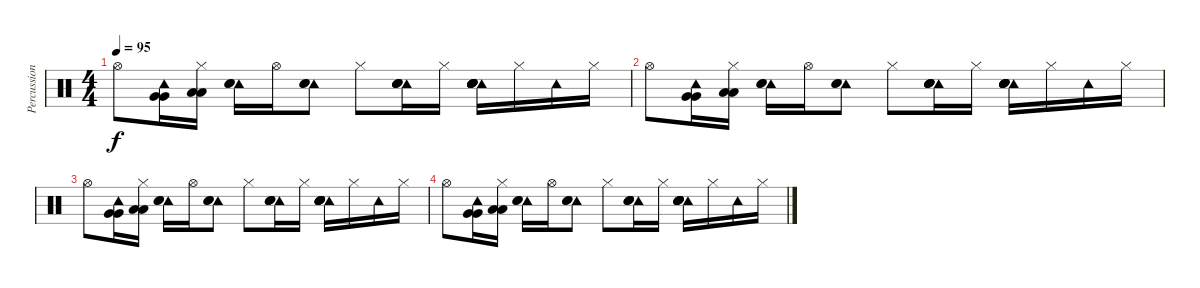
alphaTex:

\track ("Percussion" "Percussion") {instrument percussion}
\staff {score}
\articulation defaults
\ts (4 4)
\tempo 95
\clef neutral
\ks c "Hi-Hat (open)".8{dy f}
("Tambourine (hit)" "Very Low Tom (hit)" "Very Low Tom (hit)").16 ("Hi-Hat (closed)" "Low Floor Tom (hit)" "Low Floor Tom (hit)").16 ("Tambourine (hit)" "Electric Snare (hit)" "Electric Snare (hit)").16 "Hi-Hat (open)".16 ("Tambourine (hit)" "Snare (hit) 2" "Snare (hit) 2").8 "Hi-Hat (closed)".8 ("Tambourine (hit)" "Hand Clap (hit)" "Hand Clap (hit)" "Hand Clap (hit)").16 "Hi-Hat (closed)".16 ("Tambourine (hit)" "Snare (hit) 2" "Snare (hit) 2" "Hand Clap (hit)" "Hand Clap (hit)" "Hand Clap (hit)").16 "Hi-Hat (closed)".16 "Tambourine (hit)".16 "Hi-Hat (closed)".16 |
"Hi-Hat (open)".8{volume 0} ("Tambourine (hit)" "Very Low Tom (hit)" "Very Low Tom (hit)").16 ("Hi-Hat (closed)" "Low Floor Tom (hit)" "Low Floor Tom (hit)").16 ("Tambourine (hit)" "Electric Snare (hit)" "Electric Snare (hit)").16 "Hi-Hat (open)".16 ("Tambourine (hit)" "Snare (hit) 2" "Snare (hit) 2").8 "Hi-Hat (closed)".8 ("Tambourine (hit)" "Hand Clap (hit)" "Hand Clap (hit)" "Hand Clap (hit)").16 "Hi-Hat (closed)".16 ("Tambourine (hit)" "Snare (hit) 2" "Snare (hit) 2" "Hand Clap (hit)" "Hand Clap (hit)" "Hand Clap (hit)").16 "Hi-Hat (closed)".16 "Tambourine (hit)".16 "Hi-Hat (closed)".16 |
"Hi-Hat (open)".8 ("Tambourine (hit)" "Very Low Tom (hit)" "Very Low Tom (hit)").16 ("Hi-Hat (closed)" "Low Floor Tom (hit)" "Low Floor Tom (hit)").16 ("Tambourine (hit)" "Electric Snare (hit)" "Electric Snare (hit)").16 "Hi-Hat (open)".16 ("Tambourine (hit)" "Snare (hit) 2" "Snare (hit) 2").8 "Hi-Hat (closed)".8 ("Tambourine (hit)" "Hand Clap (hit)" "Hand Clap (hit)" "Hand Clap (hit)").16 "Hi-Hat (closed)".16 ("Tambourine (hit)" "Snare (hit) 2" "Snare (hit) 2" "Hand Clap (hit)" "Hand Clap (hit)" "Hand Clap (hit)").16 "Hi-Hat (closed)".16 "Tambourine (hit)".16 "Hi-Hat (closed)".16 |
"Hi-Hat (open)".8 ("Tambourine (hit)" "Very Low Tom (hit)" "Very Low Tom (hit)").16 ("Hi-Hat (closed)" "Low Floor Tom (hit)" "Low Floor Tom (hit)").16 ("Tambourine (hit)" "Electric Snare (hit)" "Electric Snare (hit)").16 "Hi-Hat (open)".16 ("Tambourine (hit)" "Snare (hit) 2" "Snare (hit) 2").8 "Hi-Hat (closed)".8 ("Tambourine (hit)" "Hand Clap (hit)" "Hand Clap (hit)" "Hand Clap (hit)").16 "Hi-Hat (closed)".16 ("Tambourine (hit)" "Snare (hit) 2" "Snare (hit) 2" "Hand Clap (hit)" "Hand Clap (hit)" "Hand Clap (hit)").16 "Hi-Hat (closed)".16 "Tambourine (hit)".16 "Hi-Hat (closed)".16
